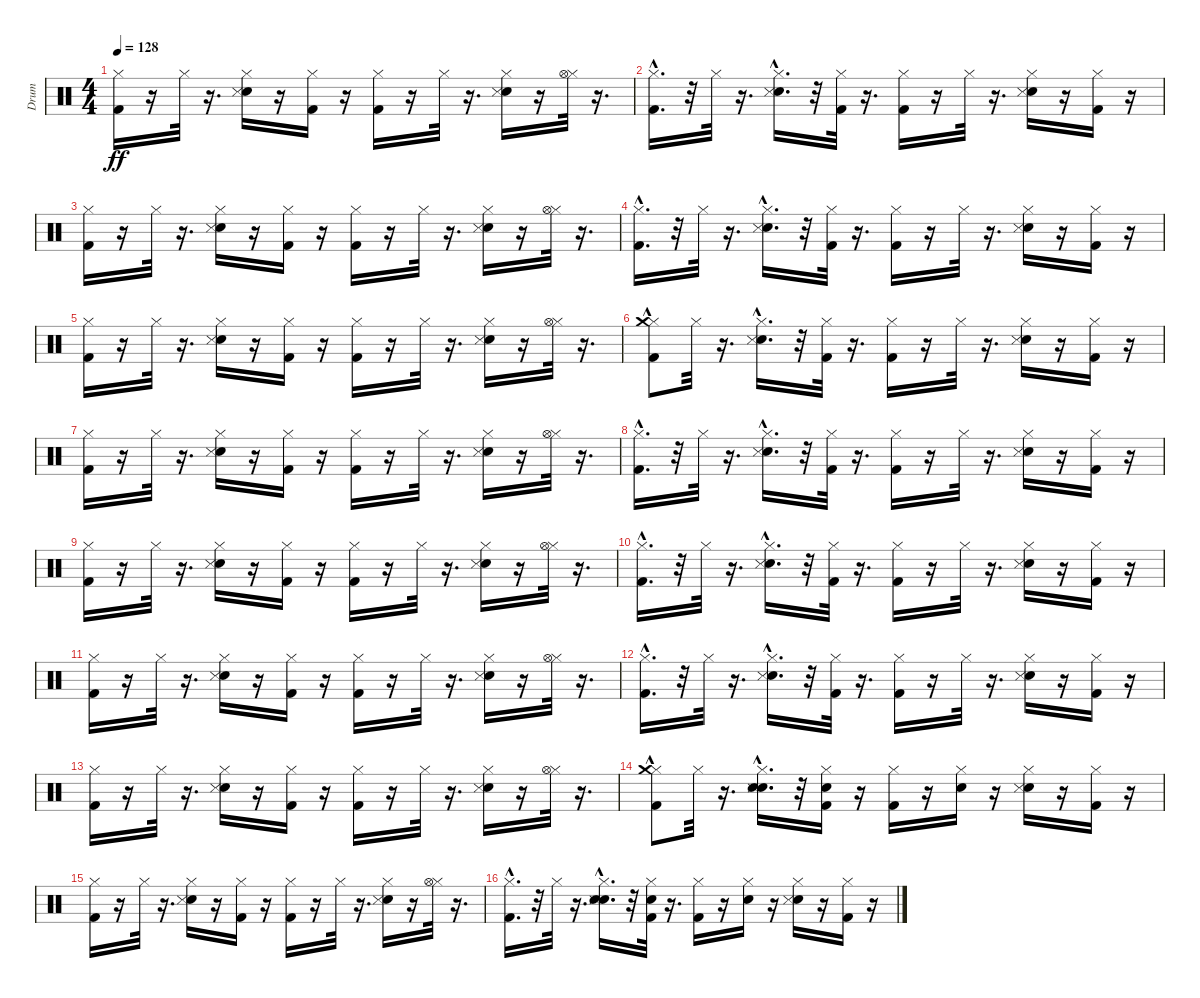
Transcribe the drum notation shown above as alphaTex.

\track ("Drum" "Drum") {instrument percussion}
\staff {score}
\articulation defaults
\ts (4 4)
\tempo 128
\clef neutral
\ks c
("Hi-Hat (closed)" "Kick (hit) 2").16{dy ff} r.16 "Hi-Hat (closed)".32 r.16{d} ("Electric Snare (hit)" "Hi-Hat (closed)" "Snare (side stick) 3").16 r.16 ("Kick (hit) 2" "Hi-Hat (closed)").16 r.16 ("Kick (hit) 2" "Hi-Hat (closed)").16 r.16 "Hi-Hat (closed)".32 r.16{d} ("Electric Snare (hit)" "Hi-Hat (closed)" "Snare (side stick) 3").16 r.16 ("Hi-Hat (closed)" "Hi-Hat (open)").32 r.16{d} |
("Kick (hit) 2"{hac} "Hi-Hat (closed)").16{d} r.32 "Hi-Hat (closed)".32 r.16{d} ("Electric Snare (hit)" "Hi-Hat (closed)" "Snare (side stick) 3"{hac}).16{d} r.32 ("Kick (hit) 2" "Hi-Hat (closed)").32 r.16{d} ("Kick (hit) 2" "Hi-Hat (closed)").16 r.16 "Hi-Hat (closed)".32 r.16{d} ("Electric Snare (hit)" "Hi-Hat (closed)" "Snare (side stick) 3").16 r.16 ("Kick (hit) 2" "Hi-Hat (closed)").16 r.16 |
("Hi-Hat (closed)" "Kick (hit) 2").16 r.16 "Hi-Hat (closed)".32 r.16{d} ("Electric Snare (hit)" "Hi-Hat (closed)" "Snare (side stick) 3").16 r.16 ("Kick (hit) 2" "Hi-Hat (closed)").16 r.16 ("Kick (hit) 2" "Hi-Hat (closed)").16 r.16 "Hi-Hat (closed)".32 r.16{d} ("Electric Snare (hit)" "Hi-Hat (closed)" "Snare (side stick) 3").16 r.16 ("Hi-Hat (closed)" "Hi-Hat (open)").32 r.16{d} |
("Kick (hit) 2"{hac} "Hi-Hat (closed)").16{d} r.32 "Hi-Hat (closed)".32 r.16{d} ("Electric Snare (hit)" "Hi-Hat (closed)" "Snare (side stick) 3"{hac}).16{d} r.32 ("Kick (hit) 2" "Hi-Hat (closed)").32 r.16{d} ("Kick (hit) 2" "Hi-Hat (closed)").16 r.16 "Hi-Hat (closed)".32 r.16{d} ("Electric Snare (hit)" "Hi-Hat (closed)" "Snare (side stick) 3").16 r.16 ("Kick (hit) 2" "Hi-Hat (closed)").16 r.16 |
("Hi-Hat (closed)" "Kick (hit) 2").16 r.16 "Hi-Hat (closed)".32 r.16{d} ("Electric Snare (hit)" "Hi-Hat (closed)" "Snare (side stick) 3").16 r.16 ("Kick (hit) 2" "Hi-Hat (closed)").16 r.16 ("Kick (hit) 2" "Hi-Hat (closed)").16 r.16 "Hi-Hat (closed)".32 r.16{d} ("Electric Snare (hit)" "Hi-Hat (closed)" "Snare (side stick) 3").16 r.16 ("Hi-Hat (closed)" "Hi-Hat (open)").32 r.16{d} |
("Kick (hit) 2"{hac} "Hi-Hat (closed)" "Crash medium (hit)").8 "Hi-Hat (closed)".32 r.16{d} ("Electric Snare (hit)" "Hi-Hat (closed)" "Snare (side stick) 3"{hac}).16{d} r.32 ("Kick (hit) 2" "Hi-Hat (closed)").32 r.16{d} ("Kick (hit) 2" "Hi-Hat (closed)").16 r.16 "Hi-Hat (closed)".32 r.16{d} ("Electric Snare (hit)" "Hi-Hat (closed)" "Snare (side stick) 3").16 r.16 ("Kick (hit) 2" "Hi-Hat (closed)").16 r.16 |
("Hi-Hat (closed)" "Kick (hit) 2").16 r.16 "Hi-Hat (closed)".32 r.16{d} ("Electric Snare (hit)" "Hi-Hat (closed)" "Snare (side stick) 3").16 r.16 ("Kick (hit) 2" "Hi-Hat (closed)").16 r.16 ("Kick (hit) 2" "Hi-Hat (closed)").16 r.16 "Hi-Hat (closed)".32 r.16{d} ("Electric Snare (hit)" "Hi-Hat (closed)" "Snare (side stick) 3").16 r.16 ("Hi-Hat (closed)" "Hi-Hat (open)").32 r.16{d} |
("Kick (hit) 2"{hac} "Hi-Hat (closed)").16{d} r.32 "Hi-Hat (closed)".32 r.16{d} ("Electric Snare (hit)" "Hi-Hat (closed)" "Snare (side stick) 3"{hac}).16{d} r.32 ("Kick (hit) 2" "Hi-Hat (closed)").32 r.16{d} ("Kick (hit) 2" "Hi-Hat (closed)").16 r.16 "Hi-Hat (closed)".32 r.16{d} ("Electric Snare (hit)" "Hi-Hat (closed)" "Snare (side stick) 3").16 r.16 ("Kick (hit) 2" "Hi-Hat (closed)").16 r.16 |
("Hi-Hat (closed)" "Kick (hit) 2").16 r.16 "Hi-Hat (closed)".32 r.16{d} ("Electric Snare (hit)" "Hi-Hat (closed)" "Snare (side stick) 3").16 r.16 ("Kick (hit) 2" "Hi-Hat (closed)").16 r.16 ("Kick (hit) 2" "Hi-Hat (closed)").16 r.16 "Hi-Hat (closed)".32 r.16{d} ("Electric Snare (hit)" "Hi-Hat (closed)" "Snare (side stick) 3").16 r.16 ("Hi-Hat (closed)" "Hi-Hat (open)").32 r.16{d} |
("Kick (hit) 2"{hac} "Hi-Hat (closed)").16{d} r.32 "Hi-Hat (closed)".32 r.16{d} ("Electric Snare (hit)" "Hi-Hat (closed)" "Snare (side stick) 3"{hac}).16{d} r.32 ("Kick (hit) 2" "Hi-Hat (closed)").32 r.16{d} ("Kick (hit) 2" "Hi-Hat (closed)").16 r.16 "Hi-Hat (closed)".32 r.16{d} ("Electric Snare (hit)" "Hi-Hat (closed)" "Snare (side stick) 3").16 r.16 ("Kick (hit) 2" "Hi-Hat (closed)").16 r.16 |
("Hi-Hat (closed)" "Kick (hit) 2").16 r.16 "Hi-Hat (closed)".32 r.16{d} ("Electric Snare (hit)" "Hi-Hat (closed)" "Snare (side stick) 3").16 r.16 ("Kick (hit) 2" "Hi-Hat (closed)").16 r.16 ("Kick (hit) 2" "Hi-Hat (closed)").16 r.16 "Hi-Hat (closed)".32 r.16{d} ("Electric Snare (hit)" "Hi-Hat (closed)" "Snare (side stick) 3").16 r.16 ("Hi-Hat (closed)" "Hi-Hat (open)").32 r.16{d} |
("Kick (hit) 2"{hac} "Hi-Hat (closed)").16{d} r.32 "Hi-Hat (closed)".32 r.16{d} ("Electric Snare (hit)" "Hi-Hat (closed)" "Snare (side stick) 3"{hac}).16{d} r.32 ("Kick (hit) 2" "Hi-Hat (closed)").32 r.16{d} ("Kick (hit) 2" "Hi-Hat (closed)").16 r.16 "Hi-Hat (closed)".32 r.16{d} ("Electric Snare (hit)" "Hi-Hat (closed)" "Snare (side stick) 3").16 r.16 ("Kick (hit) 2" "Hi-Hat (closed)").16 r.16 |
("Hi-Hat (closed)" "Kick (hit) 2").16 r.16 "Hi-Hat (closed)".32 r.16{d} ("Electric Snare (hit)" "Hi-Hat (closed)" "Snare (side stick) 3").16 r.16 ("Kick (hit) 2" "Hi-Hat (closed)").16 r.16 ("Kick (hit) 2" "Hi-Hat (closed)").16 r.16 "Hi-Hat (closed)".32 r.16{d} ("Electric Snare (hit)" "Hi-Hat (closed)" "Snare (side stick) 3").16 r.16 ("Hi-Hat (closed)" "Hi-Hat (open)").32 r.16{d} |
("Kick (hit) 2"{hac} "Hi-Hat (closed)" "Crash medium (hit)").8 "Hi-Hat (closed)".32 r.16{d} ("Electric Snare (hit)" "Hi-Hat (closed)" "Snare (side stick) 3"{hac} "Hand Clap (hit)").16{d} r.32 ("Kick (hit) 2" "Hi-Hat (closed)" "Hand Clap (hit)").16 r.16 ("Kick (hit) 2" "Hi-Hat (closed)").16 r.16 ("Hi-Hat (closed)" "Hand Clap (hit)").16 r.16 ("Electric Snare (hit)" "Hi-Hat (closed)" "Snare (side stick) 3").16 r.16 ("Kick (hit) 2" "Hi-Hat (closed)").16 r.16 |
("Hi-Hat (closed)" "Kick (hit) 2").16 r.16 "Hi-Hat (closed)".32 r.16{d} ("Electric Snare (hit)" "Hi-Hat (closed)" "Snare (side stick) 3").16 r.16 ("Kick (hit) 2" "Hi-Hat (closed)").16 r.16 ("Kick (hit) 2" "Hi-Hat (closed)").16 r.16 "Hi-Hat (closed)".32 r.16{d} ("Electric Snare (hit)" "Hi-Hat (closed)" "Snare (side stick) 3").16 r.16 ("Hi-Hat (closed)" "Hi-Hat (open)").32 r.16{d} |
("Kick (hit) 2"{hac} "Hi-Hat (closed)").16{d} r.32 "Hi-Hat (closed)".32 r.16{d} ("Electric Snare (hit)" "Hi-Hat (closed)" "Snare (side stick) 3"{hac} "Hand Clap (hit)").16{d} r.32 ("Kick (hit) 2" "Hi-Hat (closed)" "Hand Clap (hit)").32 r.16{d} ("Kick (hit) 2" "Hi-Hat (closed)").16 r.16 ("Hi-Hat (closed)" "Hand Clap (hit)").16 r.16 ("Electric Snare (hit)" "Hi-Hat (closed)" "Snare (side stick) 3").16 r.16 ("Kick (hit) 2" "Hi-Hat (closed)").16 r.16
